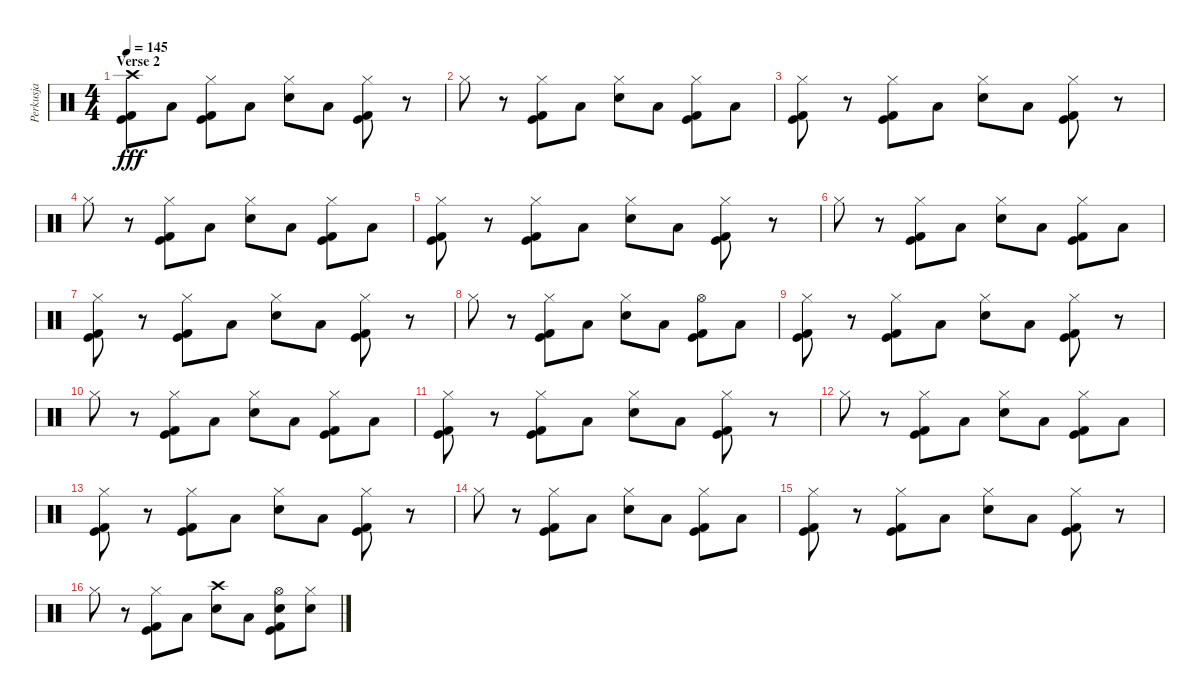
\track ("Perkusja" "Perkusja") {instrument percussion}
\staff {score}
\articulation defaults
\ts (4 4)
\section ("" "Verse 2")
\tempo 145
\clef neutral
\ks c
("Crash high (hit)" "Kick (hit)" "Kick (hit) 2").8{dy fff} "Low Floor Tom (hit)".8 ("Hi-Hat (closed)" "Kick (hit)" "Kick (hit) 2").8 "Low Floor Tom (hit)".8 ("Hi-Hat (closed)" "Electric Snare (hit)").8 "Low Floor Tom (hit)".8 ("Hi-Hat (closed)" "Kick (hit)" "Kick (hit) 2").8 r.8 |
"Hi-Hat (closed)".8 r.8 ("Hi-Hat (closed)" "Kick (hit)" "Kick (hit) 2").8 "Low Floor Tom (hit)".8 ("Hi-Hat (closed)" "Electric Snare (hit)").8 "Low Floor Tom (hit)".8 ("Hi-Hat (closed)" "Kick (hit)" "Kick (hit) 2").8 "Low Floor Tom (hit)".8 |
("Hi-Hat (closed)" "Kick (hit)" "Kick (hit) 2").8 r.8 ("Hi-Hat (closed)" "Kick (hit)" "Kick (hit) 2").8 "Low Floor Tom (hit)".8 ("Hi-Hat (closed)" "Electric Snare (hit)").8 "Low Floor Tom (hit)".8 ("Hi-Hat (closed)" "Kick (hit)" "Kick (hit) 2").8 r.8 |
"Hi-Hat (closed)".8 r.8 ("Hi-Hat (closed)" "Kick (hit)" "Kick (hit) 2").8 "Low Floor Tom (hit)".8 ("Hi-Hat (closed)" "Electric Snare (hit)").8 "Low Floor Tom (hit)".8 ("Hi-Hat (closed)" "Kick (hit)" "Kick (hit) 2").8 "Low Floor Tom (hit)".8 |
("Hi-Hat (closed)" "Kick (hit)" "Kick (hit) 2").8 r.8 ("Hi-Hat (closed)" "Kick (hit)" "Kick (hit) 2").8 "Low Floor Tom (hit)".8 ("Hi-Hat (closed)" "Electric Snare (hit)").8 "Low Floor Tom (hit)".8 ("Hi-Hat (closed)" "Kick (hit)" "Kick (hit) 2").8 r.8 |
"Hi-Hat (closed)".8 r.8 ("Hi-Hat (closed)" "Kick (hit)" "Kick (hit) 2").8 "Low Floor Tom (hit)".8 ("Hi-Hat (closed)" "Electric Snare (hit)").8 "Low Floor Tom (hit)".8 ("Hi-Hat (closed)" "Kick (hit)" "Kick (hit) 2").8 "Low Floor Tom (hit)".8 |
("Hi-Hat (closed)" "Kick (hit)" "Kick (hit) 2").8 r.8 ("Hi-Hat (closed)" "Kick (hit)" "Kick (hit) 2").8 "Low Floor Tom (hit)".8 ("Hi-Hat (closed)" "Electric Snare (hit)").8 "Low Floor Tom (hit)".8 ("Hi-Hat (closed)" "Kick (hit)" "Kick (hit) 2").8 r.8 |
"Hi-Hat (closed)".8 r.8 ("Hi-Hat (closed)" "Kick (hit)" "Kick (hit) 2").8 "Low Floor Tom (hit)".8 ("Hi-Hat (closed)" "Electric Snare (hit)").8 "Low Floor Tom (hit)".8 ("Hi-Hat (open)" "Kick (hit)" "Kick (hit) 2").8 "Low Floor Tom (hit)".8 |
("Hi-Hat (closed)" "Kick (hit)" "Kick (hit) 2").8 r.8 ("Hi-Hat (closed)" "Kick (hit)" "Kick (hit) 2").8 "Low Floor Tom (hit)".8 ("Hi-Hat (closed)" "Electric Snare (hit)").8 "Low Floor Tom (hit)".8 ("Hi-Hat (closed)" "Kick (hit)" "Kick (hit) 2").8 r.8 |
"Hi-Hat (closed)".8 r.8 ("Hi-Hat (closed)" "Kick (hit)" "Kick (hit) 2").8 "Low Floor Tom (hit)".8 ("Hi-Hat (closed)" "Electric Snare (hit)").8 "Low Floor Tom (hit)".8 ("Hi-Hat (closed)" "Kick (hit)" "Kick (hit) 2").8 "Low Floor Tom (hit)".8 |
("Hi-Hat (closed)" "Kick (hit)" "Kick (hit) 2").8 r.8 ("Hi-Hat (closed)" "Kick (hit)" "Kick (hit) 2").8 "Low Floor Tom (hit)".8 ("Hi-Hat (closed)" "Electric Snare (hit)").8 "Low Floor Tom (hit)".8 ("Hi-Hat (closed)" "Kick (hit)" "Kick (hit) 2").8 r.8 |
"Hi-Hat (closed)".8 r.8 ("Hi-Hat (closed)" "Kick (hit)" "Kick (hit) 2").8 "Low Floor Tom (hit)".8 ("Hi-Hat (closed)" "Electric Snare (hit)").8 "Low Floor Tom (hit)".8 ("Hi-Hat (closed)" "Kick (hit)" "Kick (hit) 2").8 "Low Floor Tom (hit)".8 |
("Hi-Hat (closed)" "Kick (hit)" "Kick (hit) 2").8 r.8 ("Hi-Hat (closed)" "Kick (hit)" "Kick (hit) 2").8 "Low Floor Tom (hit)".8 ("Hi-Hat (closed)" "Electric Snare (hit)").8 "Low Floor Tom (hit)".8 ("Hi-Hat (closed)" "Kick (hit)" "Kick (hit) 2").8 r.8 |
"Hi-Hat (closed)".8 r.8 ("Hi-Hat (closed)" "Kick (hit)" "Kick (hit) 2").8 "Low Floor Tom (hit)".8 ("Hi-Hat (closed)" "Electric Snare (hit)").8 "Low Floor Tom (hit)".8 ("Hi-Hat (closed)" "Kick (hit)" "Kick (hit) 2").8 "Low Floor Tom (hit)".8 |
("Hi-Hat (closed)" "Kick (hit)" "Kick (hit) 2").8 r.8 ("Hi-Hat (closed)" "Kick (hit)" "Kick (hit) 2").8 "Low Floor Tom (hit)".8 ("Hi-Hat (closed)" "Electric Snare (hit)").8 "Low Floor Tom (hit)".8 ("Hi-Hat (closed)" "Kick (hit)" "Kick (hit) 2").8 r.8 |
"Hi-Hat (closed)".8 r.8 ("Hi-Hat (closed)" "Kick (hit)" "Kick (hit) 2").8 "Low Floor Tom (hit)".8 ("Crash high (hit)" "Electric Snare (hit)").8 "Low Floor Tom (hit)".8 ("Hi-Hat (open)" "Electric Snare (hit)" "Kick (hit)" "Kick (hit) 2").8 ("Hi-Hat (closed)" "Electric Snare (hit)").8
